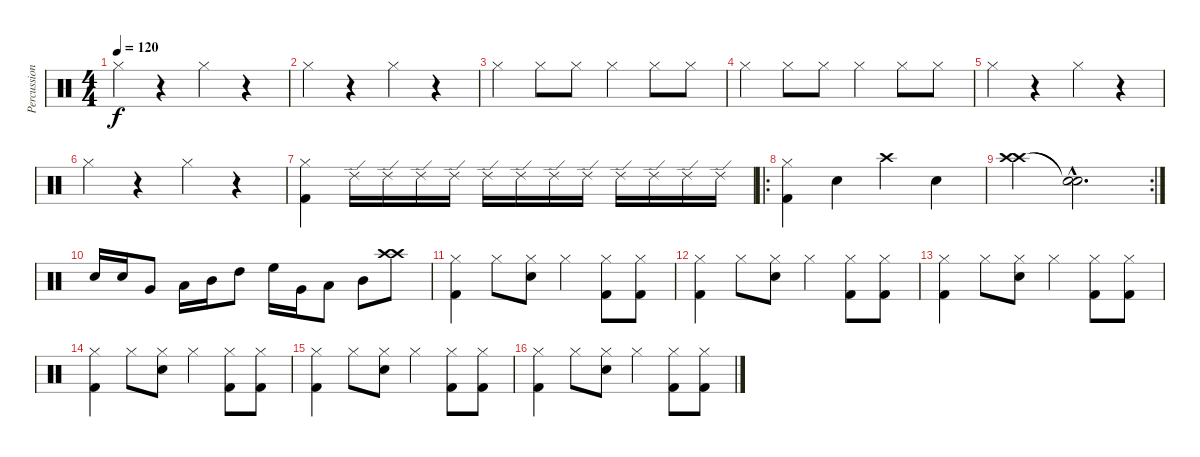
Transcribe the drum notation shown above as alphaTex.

\track ("Percussions" "Percussion") {instrument percussion}
\staff {score}
\articulation defaults
\ts (4 4)
\tempo 120
\clef neutral
\ks c "Hi-Hat (closed)".4{dy f}
r.4 "Hi-Hat (closed)".4 r.4 |
"Hi-Hat (closed)".4 r.4 "Hi-Hat (closed)".4 r.4 |
"Hi-Hat (closed)".4 "Hi-Hat (closed)".8 "Hi-Hat (closed)".8 "Hi-Hat (closed)".4 "Hi-Hat (closed)".8 "Hi-Hat (closed)".8 |
"Hi-Hat (closed)".4 "Hi-Hat (closed)".8 "Hi-Hat (closed)".8 "Hi-Hat (closed)".4 "Hi-Hat (closed)".8 "Hi-Hat (closed)".8 |
"Hi-Hat (closed)".4 r.4 "Hi-Hat (closed)".4 r.4 |
"Hi-Hat (closed)".4 r.4 "Hi-Hat (closed)".4 r.4 |
("Hi-Hat (closed)" "Kick (hit) 2").4 "Ride (edge) 2".16 "Ride (edge) 2".16 "Ride (edge) 2".16 "Ride (edge) 2".16 "Ride (edge) 2".16 "Ride (edge) 2".16 "Ride (edge) 2".16 "Ride (edge) 2".16 "Ride (edge) 2".16 "Ride (edge) 2".16 "Ride (edge) 2".16 "Ride (edge) 2".16 |
\ro
("Hi-Hat (closed)" "Kick (hit) 2").4 "Electric Snare (hit)".4 "Crash high (hit)".4 "Snare (hit) 2".4 |
\rc 2
("Crash high (hit)" "Crash high (hit)").4 ("Snare (hit)"{hac t} "Snare (hit)"{hac t}).2{d} |
"Snare (hit) 2".16 "Electric Snare (hit)".16 "Very Low Tom (hit)".8 "Low Tom (hit)".16 "Mid Tom (hit)".16 "High Tom (hit)".8 "High Floor Tom (hit)".16 "Very Low Tom (hit)".16 "Low Tom (hit)".8 "Mid Tom (hit)".8 ("Crash high (hit)" "Crash high (hit)").8 |
("Hi-Hat (closed)" "Kick (hit) 2").4 "Hi-Hat (closed)".8 ("Hi-Hat (closed)" "Electric Snare (hit)").8 "Hi-Hat (closed)".4 ("Hi-Hat (closed)" "Kick (hit) 2").8 ("Hi-Hat (closed)" "Kick (hit) 2").8 |
("Hi-Hat (closed)" "Kick (hit) 2").4 "Hi-Hat (closed)".8 ("Hi-Hat (closed)" "Electric Snare (hit)").8 "Hi-Hat (closed)".4 ("Hi-Hat (closed)" "Kick (hit) 2").8 ("Hi-Hat (closed)" "Kick (hit) 2").8 |
("Hi-Hat (closed)" "Kick (hit) 2").4 "Hi-Hat (closed)".8 ("Hi-Hat (closed)" "Electric Snare (hit)").8 "Hi-Hat (closed)".4 ("Hi-Hat (closed)" "Kick (hit) 2").8 ("Hi-Hat (closed)" "Kick (hit) 2").8 |
("Hi-Hat (closed)" "Kick (hit) 2").4 "Hi-Hat (closed)".8 ("Hi-Hat (closed)" "Electric Snare (hit)").8 "Hi-Hat (closed)".4 ("Hi-Hat (closed)" "Kick (hit) 2").8 ("Hi-Hat (closed)" "Kick (hit) 2").8 |
("Hi-Hat (closed)" "Kick (hit) 2").4 "Hi-Hat (closed)".8 ("Hi-Hat (closed)" "Electric Snare (hit)").8 "Hi-Hat (closed)".4 ("Hi-Hat (closed)" "Kick (hit) 2").8 ("Hi-Hat (closed)" "Kick (hit) 2").8 |
("Hi-Hat (closed)" "Kick (hit) 2").4 "Hi-Hat (closed)".8 ("Hi-Hat (closed)" "Electric Snare (hit)").8 "Hi-Hat (closed)".4 ("Hi-Hat (closed)" "Kick (hit) 2").8 ("Hi-Hat (closed)" "Kick (hit) 2").8
